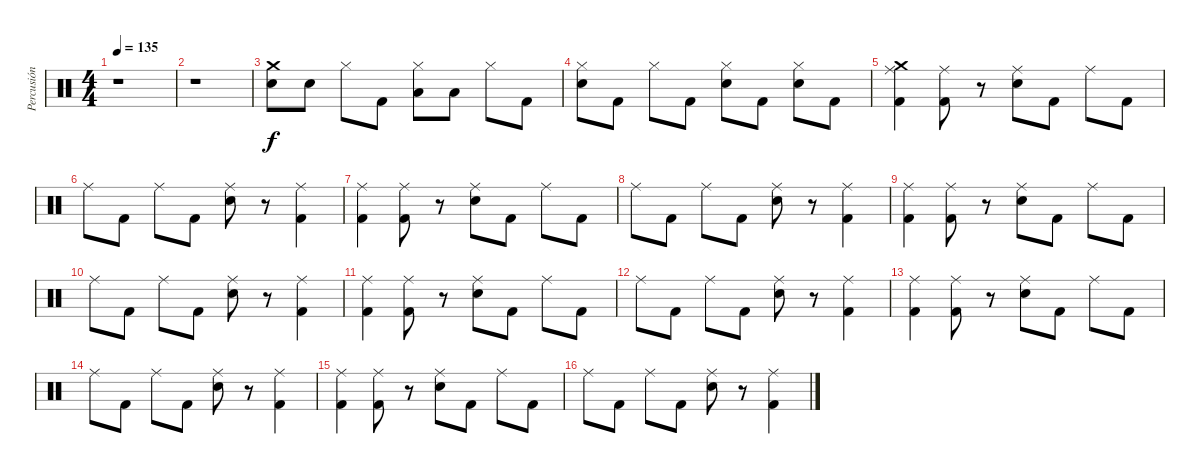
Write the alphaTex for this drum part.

\track ("Percusión" "Percusión") {instrument percussion}
\staff {score}
\articulation defaults
\ts (4 4)
\tempo 135
\clef neutral
\ks c
r.1{dy f} |
r.1 |
("Snare (hit) 2" "Crash medium (hit)").8 "Snare (hit) 2".8 "Hi-Hat (closed)".8 "Kick (hit) 2".8 ("Low Tom (hit)" "Hi-Hat (closed)").8 "Low Tom (hit)".8 "Hi-Hat (closed)".8 "Kick (hit) 2".8 |
("Snare (hit) 2" "Hi-Hat (closed)").8 "Kick (hit) 2".8 "Hi-Hat (closed)".8 "Kick (hit) 2".8 ("Snare (hit) 2" "Hi-Hat (closed)").8 "Kick (hit) 2".8 ("Snare (hit) 2" "Hi-Hat (closed)").8 "Kick (hit) 2".8 |
("Kick (hit) 2" "Ride (middle)" "Crash medium (hit)").4 ("Kick (hit) 2" "Ride (middle)").8 r.8 ("Snare (hit) 2" "Ride (middle)").8 "Kick (hit) 2".8 "Ride (middle)".8 "Kick (hit) 2".8 |
"Ride (middle)".8 "Kick (hit) 2".8 "Ride (middle)".8 "Kick (hit) 2".8 ("Snare (hit) 2" "Ride (middle)").8 r.8 ("Kick (hit) 2" "Ride (middle)").4 |
("Kick (hit) 2" "Ride (middle)").4 ("Kick (hit) 2" "Ride (middle)").8 r.8 ("Snare (hit) 2" "Ride (middle)").8 "Kick (hit) 2".8 "Ride (middle)".8 "Kick (hit) 2".8 |
"Ride (middle)".8 "Kick (hit) 2".8 "Ride (middle)".8 "Kick (hit) 2".8 ("Snare (hit) 2" "Ride (middle)").8 r.8 ("Kick (hit) 2" "Ride (middle)").4 |
("Kick (hit) 2" "Ride (middle)").4 ("Kick (hit) 2" "Ride (middle)").8 r.8 ("Snare (hit) 2" "Ride (middle)").8 "Kick (hit) 2".8 "Ride (middle)".8 "Kick (hit) 2".8 |
"Ride (middle)".8 "Kick (hit) 2".8 "Ride (middle)".8 "Kick (hit) 2".8 ("Snare (hit) 2" "Ride (middle)").8 r.8 ("Kick (hit) 2" "Ride (middle)").4 |
("Kick (hit) 2" "Ride (middle)").4 ("Kick (hit) 2" "Ride (middle)").8 r.8 ("Snare (hit) 2" "Ride (middle)").8 "Kick (hit) 2".8 "Ride (middle)".8 "Kick (hit) 2".8 |
"Ride (middle)".8 "Kick (hit) 2".8 "Ride (middle)".8 "Kick (hit) 2".8 ("Snare (hit) 2" "Ride (middle)").8 r.8 ("Kick (hit) 2" "Ride (middle)").4 |
("Kick (hit) 2" "Ride (middle)").4 ("Kick (hit) 2" "Ride (middle)").8 r.8 ("Snare (hit) 2" "Ride (middle)").8 "Kick (hit) 2".8 "Ride (middle)".8 "Kick (hit) 2".8 |
"Ride (middle)".8 "Kick (hit) 2".8 "Ride (middle)".8 "Kick (hit) 2".8 ("Snare (hit) 2" "Ride (middle)").8 r.8 ("Kick (hit) 2" "Ride (middle)").4 |
("Kick (hit) 2" "Ride (middle)").4 ("Kick (hit) 2" "Ride (middle)").8 r.8 ("Snare (hit) 2" "Ride (middle)").8 "Kick (hit) 2".8 "Ride (middle)".8 "Kick (hit) 2".8 |
"Ride (middle)".8 "Kick (hit) 2".8 "Ride (middle)".8 "Kick (hit) 2".8 ("Snare (hit) 2" "Ride (middle)").8 r.8 ("Kick (hit) 2" "Ride (middle)").4
